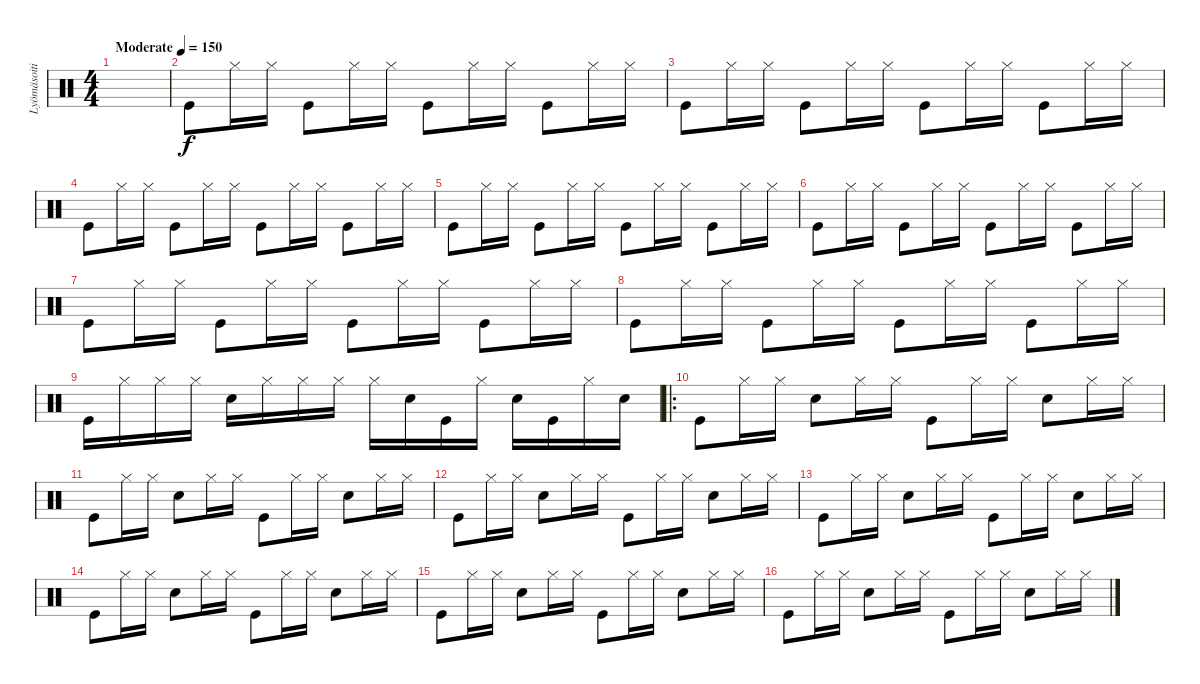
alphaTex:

\track ("Lyömäsoitin" "Lyömäsoiti") {instrument percussion}
\staff {score}
\articulation defaults
\ts (4 4)
\tempo (150 "Moderate")
\clef neutral
\ks c
|
"Kick (hit)".8 "Hi-Hat (closed)".16 "Hi-Hat (closed)".16 "Kick (hit)".8 "Hi-Hat (closed)".16 "Hi-Hat (closed)".16 "Kick (hit)".8 "Hi-Hat (closed)".16 "Hi-Hat (closed)".16 "Kick (hit)".8 "Hi-Hat (closed)".16 "Hi-Hat (closed)".16 |
"Kick (hit)".8 "Hi-Hat (closed)".16 "Hi-Hat (closed)".16 "Kick (hit)".8 "Hi-Hat (closed)".16 "Hi-Hat (closed)".16 "Kick (hit)".8 "Hi-Hat (closed)".16 "Hi-Hat (closed)".16 "Kick (hit)".8 "Hi-Hat (closed)".16 "Hi-Hat (closed)".16 |
"Kick (hit)".8 "Hi-Hat (closed)".16 "Hi-Hat (closed)".16 "Kick (hit)".8 "Hi-Hat (closed)".16 "Hi-Hat (closed)".16 "Kick (hit)".8 "Hi-Hat (closed)".16 "Hi-Hat (closed)".16 "Kick (hit)".8 "Hi-Hat (closed)".16 "Hi-Hat (closed)".16 |
"Kick (hit)".8 "Hi-Hat (closed)".16 "Hi-Hat (closed)".16 "Kick (hit)".8 "Hi-Hat (closed)".16 "Hi-Hat (closed)".16 "Kick (hit)".8 "Hi-Hat (closed)".16 "Hi-Hat (closed)".16 "Kick (hit)".8 "Hi-Hat (closed)".16 "Hi-Hat (closed)".16 |
"Kick (hit)".8 "Hi-Hat (closed)".16 "Hi-Hat (closed)".16 "Kick (hit)".8 "Hi-Hat (closed)".16 "Hi-Hat (closed)".16 "Kick (hit)".8 "Hi-Hat (closed)".16 "Hi-Hat (closed)".16 "Kick (hit)".8 "Hi-Hat (closed)".16 "Hi-Hat (closed)".16 |
"Kick (hit)".8 "Hi-Hat (closed)".16 "Hi-Hat (closed)".16 "Kick (hit)".8 "Hi-Hat (closed)".16 "Hi-Hat (closed)".16 "Kick (hit)".8 "Hi-Hat (closed)".16 "Hi-Hat (closed)".16 "Kick (hit)".8 "Hi-Hat (closed)".16 "Hi-Hat (closed)".16 |
"Kick (hit)".8 "Hi-Hat (closed)".16 "Hi-Hat (closed)".16 "Kick (hit)".8 "Hi-Hat (closed)".16 "Hi-Hat (closed)".16 "Kick (hit)".8 "Hi-Hat (closed)".16 "Hi-Hat (closed)".16 "Kick (hit)".8 "Hi-Hat (closed)".16 "Hi-Hat (closed)".16 |
"Kick (hit)".16 "Hi-Hat (closed)".16 "Hi-Hat (closed)".16 "Hi-Hat (closed)".16 "Snare (hit) 2".16 "Hi-Hat (closed)".16 "Hi-Hat (closed)".16 "Hi-Hat (closed)".16 "Hi-Hat (closed)".16 "Snare (hit) 2".16 "Kick (hit)".16 "Hi-Hat (closed)".16 "Snare (hit) 2".16 "Kick (hit)".16 "Hi-Hat (closed)".16 "Snare (hit) 2".16 |
\ro "Kick (hit)".8 "Hi-Hat (closed)".16 "Hi-Hat (closed)".16 "Snare (hit) 2".8 "Hi-Hat (closed)".16 "Hi-Hat (closed)".16 "Kick (hit)".8 "Hi-Hat (closed)".16 "Hi-Hat (closed)".16 "Snare (hit) 2".8 "Hi-Hat (closed)".16 "Hi-Hat (closed)".16
|
"Kick (hit)".8 "Hi-Hat (closed)".16 "Hi-Hat (closed)".16 "Snare (hit) 2".8 "Hi-Hat (closed)".16 "Hi-Hat (closed)".16 "Kick (hit)".8 "Hi-Hat (closed)".16 "Hi-Hat (closed)".16 "Snare (hit) 2".8 "Hi-Hat (closed)".16 "Hi-Hat (closed)".16 |
"Kick (hit)".8 "Hi-Hat (closed)".16 "Hi-Hat (closed)".16 "Snare (hit) 2".8 "Hi-Hat (closed)".16 "Hi-Hat (closed)".16 "Kick (hit)".8 "Hi-Hat (closed)".16 "Hi-Hat (closed)".16 "Snare (hit) 2".8 "Hi-Hat (closed)".16 "Hi-Hat (closed)".16 |
"Kick (hit)".8 "Hi-Hat (closed)".16 "Hi-Hat (closed)".16 "Snare (hit) 2".8 "Hi-Hat (closed)".16 "Hi-Hat (closed)".16 "Kick (hit)".8 "Hi-Hat (closed)".16 "Hi-Hat (closed)".16 "Snare (hit) 2".8 "Hi-Hat (closed)".16 "Hi-Hat (closed)".16 |
"Kick (hit)".8 "Hi-Hat (closed)".16 "Hi-Hat (closed)".16 "Snare (hit) 2".8 "Hi-Hat (closed)".16 "Hi-Hat (closed)".16 "Kick (hit)".8 "Hi-Hat (closed)".16 "Hi-Hat (closed)".16 "Snare (hit) 2".8 "Hi-Hat (closed)".16 "Hi-Hat (closed)".16 |
"Kick (hit)".8 "Hi-Hat (closed)".16 "Hi-Hat (closed)".16 "Snare (hit) 2".8 "Hi-Hat (closed)".16 "Hi-Hat (closed)".16 "Kick (hit)".8 "Hi-Hat (closed)".16 "Hi-Hat (closed)".16 "Snare (hit) 2".8 "Hi-Hat (closed)".16 "Hi-Hat (closed)".16 |
"Kick (hit)".8 "Hi-Hat (closed)".16 "Hi-Hat (closed)".16 "Snare (hit) 2".8 "Hi-Hat (closed)".16 "Hi-Hat (closed)".16 "Kick (hit)".8 "Hi-Hat (closed)".16 "Hi-Hat (closed)".16 "Snare (hit) 2".8 "Hi-Hat (closed)".16 "Hi-Hat (closed)".16
